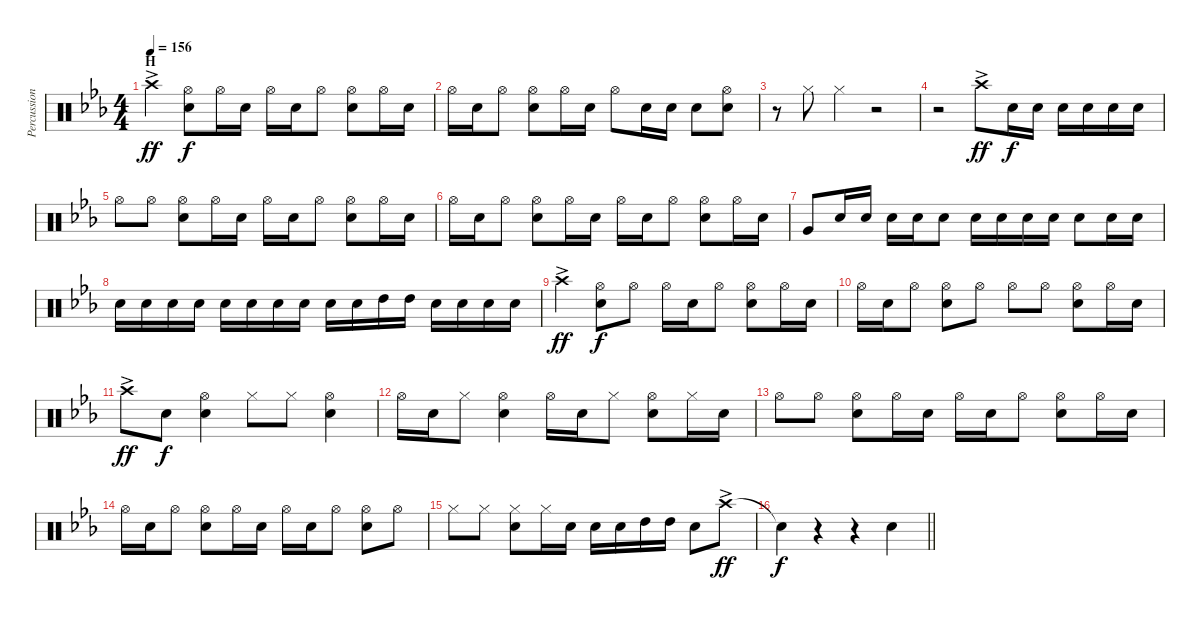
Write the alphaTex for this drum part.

\track ("Percussion hand" "Percussion") {instrument percussion}
\staff {score}
\articulation defaults
\ts (4 4)
\section ("" "H")
\tempo 156
\clef neutral
\ks eb "Crash high (hit)"{ac}.4{dy ff}
("Hi-Hat (open)" "Snare (hit) 2").8{dy f} "Hi-Hat (open)".16 "Snare (hit) 2".16 "Hi-Hat (open)".16 "Snare (hit) 2".16 "Hi-Hat (open)".8 ("Hi-Hat (open)" "Snare (hit) 2").8 "Hi-Hat (open)".16 "Snare (hit) 2".16 |
"Hi-Hat (open)".16 "Snare (hit) 2".16 "Hi-Hat (open)".8 ("Hi-Hat (open)" "Snare (hit) 2").8 "Hi-Hat (open)".16 "Snare (hit) 2".16 "Hi-Hat (open)".8 "Snare (hit) 2".16 "Snare (hit) 2".16 "Snare (hit) 2".8 ("Hi-Hat (open)" "Snare (hit) 2").8 |
r.8 "Hi-Hat (closed)".8 "Hi-Hat (closed)".4 r.2 |
r.2 "Crash high (hit)"{ac}.8{dy ff} "Snare (hit) 2".16{dy f} "Snare (hit) 2".16 "Snare (hit) 2".16 "Snare (hit) 2".16 "Snare (hit) 2".16 "Snare (hit) 2".16 |
"Hi-Hat (open)".8 "Hi-Hat (open)".8 ("Hi-Hat (open)" "Snare (hit) 2").8 "Hi-Hat (open)".16 "Snare (hit) 2".16 "Hi-Hat (open)".16 "Snare (hit) 2".16 "Hi-Hat (open)".8 ("Hi-Hat (open)" "Snare (hit) 2").8 "Hi-Hat (open)".16 "Snare (hit) 2".16 |
"Hi-Hat (open)".16 "Snare (hit) 2".16 "Hi-Hat (open)".8 ("Hi-Hat (open)" "Snare (hit) 2").8 "Hi-Hat (open)".16 "Snare (hit) 2".16 "Hi-Hat (open)".16 "Snare (hit) 2".16 "Hi-Hat (open)".8 ("Hi-Hat (open)" "Snare (hit) 2").8 "Hi-Hat (open)".16 "Snare (hit) 2".16 |
"Very Low Tom (hit)".8 "Snare (hit) 2".16 "Snare (hit) 2".16 "Snare (hit) 2".16 "Snare (hit) 2".16 "Snare (hit) 2".8 "Snare (hit) 2".16 "Snare (hit) 2".16 "Snare (hit) 2".16 "Snare (hit) 2".16 "Snare (hit) 2".8 "Snare (hit) 2".16 "Snare (hit) 2".16 |
"Snare (hit) 2".16 "Snare (hit) 2".16 "Snare (hit) 2".16 "Snare (hit) 2".16 "Snare (hit) 2".16 "Snare (hit) 2".16 "Snare (hit) 2".16 "Snare (hit) 2".16 "Snare (hit) 2".16 "Snare (hit) 2".16 "High Tom (hit)".16 "High Tom (hit)".16 "Snare (hit) 2".16 "Snare (hit) 2".16 "Snare (hit) 2".16 "Snare (hit) 2".16 |
"Crash high (hit)"{ac}.4{dy ff} ("Hi-Hat (open)" "Snare (hit) 2").8{dy f} "Hi-Hat (open)".8 "Hi-Hat (open)".16 "Snare (hit) 2".16 "Hi-Hat (open)".8 ("Hi-Hat (open)" "Snare (hit) 2").8 "Hi-Hat (open)".16 "Snare (hit) 2".16 |
"Hi-Hat (open)".16 "Snare (hit) 2".16 "Hi-Hat (open)".8 ("Hi-Hat (open)" "Snare (hit) 2").8 "Hi-Hat (open)".8 "Hi-Hat (open)".8 "Hi-Hat (open)".8 ("Hi-Hat (open)" "Snare (hit) 2").8 "Hi-Hat (open)".16 "Snare (hit) 2".16 |
"Crash high (hit)"{ac}.8{dy ff} "Snare (hit) 2".8{dy f} ("Hi-Hat (open)" "Snare (hit) 2").4 "Hi-Hat (closed)".8 "Hi-Hat (closed)".8 ("Hi-Hat (open)" "Snare (hit) 2").4 |
"Hi-Hat (open)".16 "Snare (hit) 2".16 "Hi-Hat (closed)".8 ("Hi-Hat (open)" "Snare (hit) 2").4 "Hi-Hat (open)".16 "Snare (hit) 2".16 "Hi-Hat (closed)".8 ("Hi-Hat (open)" "Snare (hit) 2").8 "Hi-Hat (closed)".16 "Snare (hit) 2".16 |
"Hi-Hat (open)".8 "Hi-Hat (open)".8 ("Hi-Hat (open)" "Snare (hit) 2").8 "Hi-Hat (open)".16 "Snare (hit) 2".16 "Hi-Hat (open)".16 "Snare (hit) 2".16 "Hi-Hat (open)".8 ("Hi-Hat (open)" "Snare (hit) 2").8 "Hi-Hat (open)".16 "Snare (hit) 2".16 |
"Hi-Hat (open)".16 "Snare (hit) 2".16 "Hi-Hat (open)".8 ("Hi-Hat (open)" "Snare (hit) 2").8 "Hi-Hat (open)".16 "Snare (hit) 2".16 "Hi-Hat (open)".16 "Snare (hit) 2".16 "Hi-Hat (open)".8 ("Snare (hit) 2" "Hi-Hat (open)").8 "Hi-Hat (open)".8 |
"Hi-Hat (closed)".8 "Hi-Hat (closed)".8 ("Hi-Hat (closed)" "Snare (hit) 2").8 "Hi-Hat (closed)".16 "Snare (hit) 2".16 "Snare (hit) 2".16 "Snare (hit) 2".16 "High Tom (hit)".16 "High Tom (hit)".16 "Snare (hit) 2".8 "Crash high (hit)"{ac}.8{dy ff} |
\barLineRight lightlight "Snare (hit)"{t}.4{dy f}
r.4 r.4 "Snare (hit) 2".4
